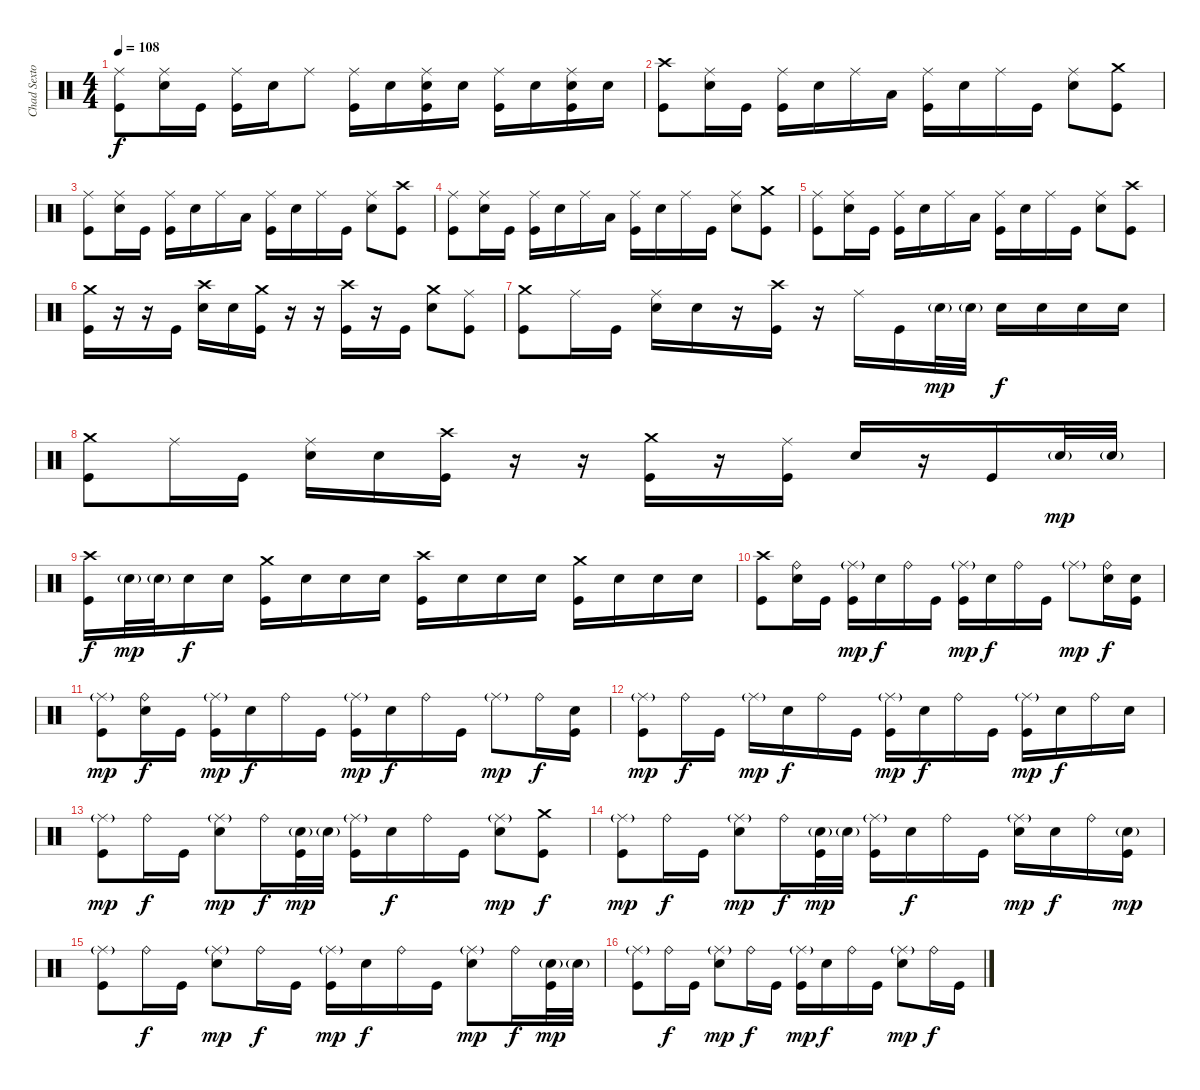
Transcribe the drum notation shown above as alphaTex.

\track ("Chad Sexton Drums" "Chad Sexto") {instrument percussion}
\staff {score}
\articulation defaults
\ts (4 4)
\tempo 108
\clef neutral
\ks c
("Ride (middle)" "Kick (hit)").8{dy f} ("Ride (middle)" "Electric Snare (hit)").16 "Kick (hit)".16 ("Ride (middle)" "Kick (hit)").16 "Electric Snare (hit)".16 "Ride (middle)".8 ("Ride (middle)" "Kick (hit)").16 "Electric Snare (hit)".16 ("Ride (middle)" "Electric Snare (hit)" "Kick (hit)").16 "Electric Snare (hit)".16 ("Ride (middle)" "Kick (hit)").16 "Electric Snare (hit)".16 ("Ride (middle)" "Electric Snare (hit)" "Kick (hit)").16 "Electric Snare (hit)".16 |
("Crash high (hit)" "Kick (hit)").8 ("Ride (middle)" "Electric Snare (hit)").16 "Kick (hit)".16 ("Ride (middle)" "Kick (hit)").16 "Electric Snare (hit)".16 "Ride (middle)".16 "Low Tom (hit)".16 ("Ride (middle)" "Kick (hit)").16 "Electric Snare (hit)".16 "Ride (middle)".16 "Kick (hit)".16 ("Ride (middle)" "Electric Snare (hit)").8 ("Crash medium (hit)" "Kick (hit)").8 |
("Ride (middle)" "Kick (hit)").8 ("Ride (middle)" "Electric Snare (hit)").16 "Kick (hit)".16 ("Ride (middle)" "Kick (hit)").16 "Electric Snare (hit)".16 "Ride (middle)".16 "Low Tom (hit)".16 ("Ride (middle)" "Kick (hit)").16 "Electric Snare (hit)".16 "Ride (middle)".16 "Kick (hit)".16 ("Ride (middle)" "Electric Snare (hit)").8 ("Crash high (hit)" "Kick (hit)").8 |
("Ride (middle)" "Kick (hit)").8 ("Ride (middle)" "Electric Snare (hit)").16 "Kick (hit)".16 ("Ride (middle)" "Kick (hit)").16 "Electric Snare (hit)".16 "Ride (middle)".16 "Low Tom (hit)".16 ("Ride (middle)" "Kick (hit)").16 "Electric Snare (hit)".16 "Ride (middle)".16 "Kick (hit)".16 ("Ride (middle)" "Electric Snare (hit)").8 ("Crash medium (hit)" "Kick (hit)").8 |
("Ride (middle)" "Kick (hit)").8 ("Ride (middle)" "Electric Snare (hit)").16 "Kick (hit)".16 ("Ride (middle)" "Kick (hit)").16 "Electric Snare (hit)".16 "Ride (middle)".16 "Low Tom (hit)".16 ("Ride (middle)" "Kick (hit)").16 "Electric Snare (hit)".16 "Ride (middle)".16 "Kick (hit)".16 ("Ride (middle)" "Electric Snare (hit)").8 ("Crash high (hit)" "Kick (hit)").8 |
("Crash medium (hit)" "Kick (hit)").16 r.16 r.16 "Kick (hit)".16 ("Crash high (hit)" "Electric Snare (hit)").16 "Electric Snare (hit)".16 ("Crash medium (hit)" "Kick (hit)").16 r.16 r.16 ("Crash high (hit)" "Kick (hit)").16 r.16 "Kick (hit)".16 ("Crash medium (hit)" "Electric Snare (hit)").8 ("Ride (middle)" "Kick (hit)").8 |
("Crash medium (hit)" "Kick (hit)").8 "Ride (middle)".16 "Kick (hit)".16 ("Ride (middle)" "Electric Snare (hit)").16 "Electric Snare (hit)".16 r.16 ("Crash high (hit)" "Kick (hit)").16 r.16 "Ride (middle)".16 "Kick (hit)".16 "Electric Snare (hit)"{g}.32{dy mp} "Electric Snare (hit)"{g}.32 "Electric Snare (hit)".16{dy f} "Electric Snare (hit)".16 "Electric Snare (hit)".16 "Electric Snare (hit)".16 |
("Crash medium (hit)" "Kick (hit)").8 "Ride (middle)".16 "Kick (hit)".16 ("Ride (middle)" "Electric Snare (hit)").16 "Electric Snare (hit)".16 ("Crash high (hit)" "Kick (hit)").16 r.16 r.16 ("Crash medium (hit)" "Kick (hit)").16 r.16 ("Ride (middle)" "Kick (hit)").16 "Electric Snare (hit)".16 r.16 "Kick (hit)".16 "Electric Snare (hit)"{g}.32{dy mp} "Electric Snare (hit)"{g}.32 |
("Crash high (hit)" "Kick (hit)").16{dy f} "Electric Snare (hit)"{g}.32{dy mp} "Electric Snare (hit)"{g}.32 "Electric Snare (hit)".16{dy f} "Electric Snare (hit)".16 ("Crash medium (hit)" "Kick (hit)").16 "Electric Snare (hit)".16 "Electric Snare (hit)".16 "Electric Snare (hit)".16 ("Crash high (hit)" "Kick (hit)").16 "Electric Snare (hit)".16 "Electric Snare (hit)".16 "Electric Snare (hit)".16 ("Crash medium (hit)" "Kick (hit)").16 "Electric Snare (hit)".16 "Electric Snare (hit)".16 "Electric Snare (hit)".16 |
("Crash high (hit)" "Kick (hit)").8 ("Ride (bell)" "Electric Snare (hit)").16 "Kick (hit)".16 ("Ride (middle)"{g} "Kick (hit)").16{dy mp} "Electric Snare (hit)".16{dy f} "Ride (bell)".16 "Kick (hit)".16 ("Ride (middle)"{g} "Kick (hit)").16{dy mp} "Electric Snare (hit)".16{dy f} "Ride (bell)".16 "Kick (hit)".16 "Ride (middle)"{g}.8{dy mp} ("Ride (bell)" "Electric Snare (hit)").16{dy f} ("Electric Snare (hit)" "Kick (hit)").16 |
("Ride (middle)"{g} "Kick (hit)").8{dy mp} ("Ride (bell)" "Electric Snare (hit)").16{dy f} "Kick (hit)".16 ("Ride (middle)"{g} "Kick (hit)").16{dy mp} "Electric Snare (hit)".16{dy f} "Ride (bell)".16 "Kick (hit)".16 ("Ride (middle)"{g} "Kick (hit)").16{dy mp} "Electric Snare (hit)".16{dy f} "Ride (bell)".16 "Kick (hit)".16 "Ride (middle)"{g}.8{dy mp} "Ride (bell)".16{dy f} ("Electric Snare (hit)" "Kick (hit)").16 |
("Ride (middle)"{g} "Kick (hit)").8{dy mp} "Ride (bell)".16{dy f} "Kick (hit)".16 "Ride (middle)"{g}.16{dy mp} "Electric Snare (hit)".16{dy f} "Ride (bell)".16 "Kick (hit)".16 ("Ride (middle)"{g} "Kick (hit)").16{dy mp} "Electric Snare (hit)".16{dy f} "Ride (bell)".16 "Kick (hit)".16 ("Ride (middle)"{g} "Kick (hit)").16{dy mp} "Electric Snare (hit)".16{dy f} "Ride (bell)".16 "Electric Snare (hit)".16 |
("Ride (middle)"{g} "Kick (hit)").8{dy mp} "Ride (bell)".16{dy f} "Kick (hit)".16 ("Ride (middle)"{g} "Electric Snare (hit)").8{dy mp} "Ride (bell)".16{dy f} ("Electric Snare (hit)"{g} "Kick (hit)").32{dy mp} "Electric Snare (hit)"{g}.32 ("Ride (middle)"{g} "Kick (hit)").16 "Electric Snare (hit)".16{dy f} "Ride (bell)".16 "Kick (hit)".16 ("Ride (middle)"{g} "Electric Snare (hit)").8{dy mp} ("Crash medium (hit)" "Kick (hit)").8{dy f} |
("Ride (middle)"{g} "Kick (hit)").8{dy mp} "Ride (bell)".16{dy f} "Kick (hit)".16 ("Ride (middle)"{g} "Electric Snare (hit)").8{dy mp} "Ride (bell)".16{dy f} ("Electric Snare (hit)"{g} "Kick (hit)").32{dy mp} "Electric Snare (hit)"{g}.32 ("Ride (middle)"{g} "Kick (hit)").16 "Electric Snare (hit)".16{dy f} "Ride (bell)".16 "Kick (hit)".16 ("Ride (middle)"{g} "Electric Snare (hit)").16{dy mp} "Electric Snare (hit)".16{dy f} "Ride (bell)".16 ("Electric Snare (hit)"{g} "Kick (hit)").16{dy mp} |
("Ride (middle)"{g} "Kick (hit)").8 "Ride (bell)".16{dy f} "Kick (hit)".16 ("Ride (middle)"{g} "Electric Snare (hit)").8{dy mp} "Ride (bell)".16{dy f} "Kick (hit)".16 ("Ride (middle)"{g} "Kick (hit)").16{dy mp} "Electric Snare (hit)".16{dy f} "Ride (bell)".16 "Kick (hit)".16 ("Ride (middle)"{g} "Electric Snare (hit)").8{dy mp} "Ride (bell)".16{dy f} ("Electric Snare (hit)"{g} "Kick (hit)").32{dy mp} "Electric Snare (hit)"{g}.32 |
("Ride (middle)"{g} "Kick (hit)").8 "Ride (bell)".16{dy f} "Kick (hit)".16 ("Ride (middle)"{g} "Electric Snare (hit)").8{dy mp} "Ride (bell)".16{dy f} "Kick (hit)".16 ("Ride (middle)"{g} "Kick (hit)").16{dy mp} "Electric Snare (hit)".16{dy f} "Ride (bell)".16 "Kick (hit)".16 ("Ride (middle)"{g} "Electric Snare (hit)").8{dy mp} "Ride (bell)".16{dy f} "Kick (hit)".16
